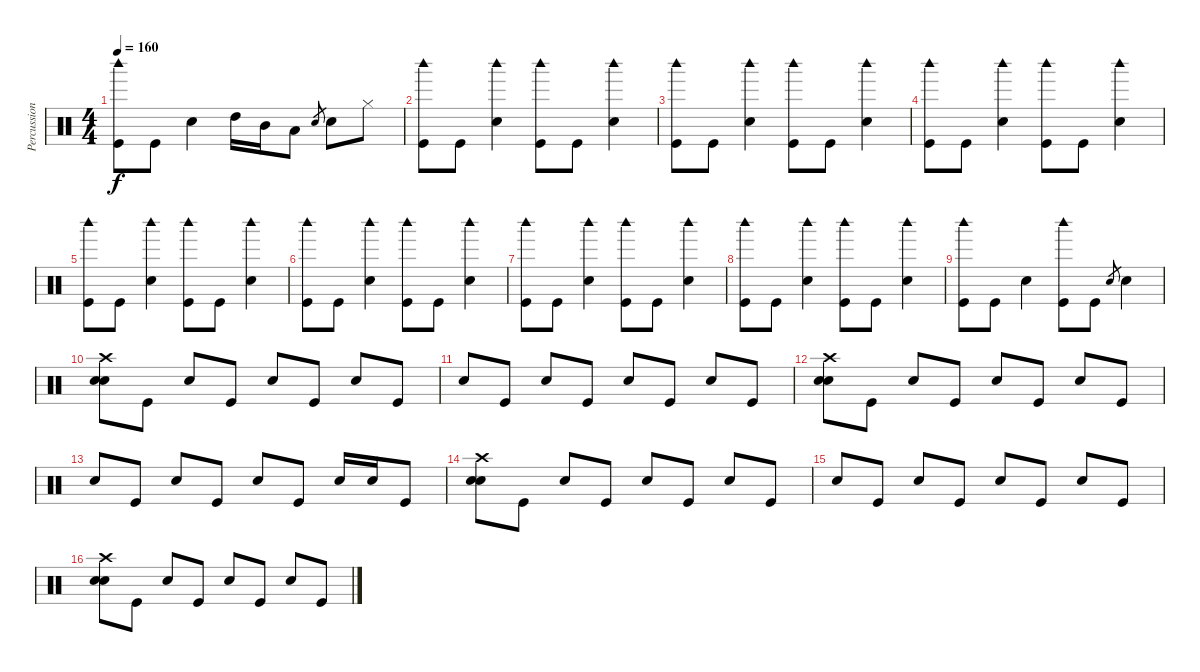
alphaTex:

\track ("Percussion" "Percussion") {instrument percussion}
\staff {score}
\articulation defaults
\ts (4 4)
\tempo 160
\clef neutral
\ks c
("Woodblock high (hit)" "Kick (hit)").8{dy f} "Kick (hit)".8 "Snare (hit) 2".4 "High Tom (hit)".16 "Mid Tom (hit)".16 "Low Tom (hit)".8 "Electric Snare (hit)".8{gr} "Snare (hit) 2".8 "Hi-Hat (closed)".8 |
("Woodblock high (hit)" "Kick (hit)").8 "Kick (hit)".8 ("Woodblock high (hit)" "Snare (hit) 2").4 ("Woodblock high (hit)" "Kick (hit)").8 "Kick (hit)".8 ("Woodblock high (hit)" "Snare (hit) 2").4 |
("Woodblock high (hit)" "Kick (hit)").8 "Kick (hit)".8 ("Woodblock high (hit)" "Snare (hit) 2").4 ("Woodblock high (hit)" "Kick (hit)").8 "Kick (hit)".8 ("Woodblock high (hit)" "Snare (hit) 2").4 |
("Woodblock high (hit)" "Kick (hit)").8 "Kick (hit)".8 ("Woodblock high (hit)" "Snare (hit) 2").4 ("Woodblock high (hit)" "Kick (hit)").8 "Kick (hit)".8 ("Woodblock high (hit)" "Snare (hit) 2").4 |
("Woodblock high (hit)" "Kick (hit)").8 "Kick (hit)".8 ("Woodblock high (hit)" "Snare (hit) 2").4 ("Woodblock high (hit)" "Kick (hit)").8 "Kick (hit)".8 ("Woodblock high (hit)" "Snare (hit) 2").4 |
("Woodblock high (hit)" "Kick (hit)").8 "Kick (hit)".8 ("Woodblock high (hit)" "Snare (hit) 2").4 ("Woodblock high (hit)" "Kick (hit)").8 "Kick (hit)".8 ("Woodblock high (hit)" "Snare (hit) 2").4 |
("Woodblock high (hit)" "Kick (hit)").8 "Kick (hit)".8 ("Woodblock high (hit)" "Snare (hit) 2").4 ("Woodblock high (hit)" "Kick (hit)").8 "Kick (hit)".8 ("Woodblock high (hit)" "Snare (hit) 2").4 |
("Woodblock high (hit)" "Kick (hit)").8 "Kick (hit)".8 ("Woodblock high (hit)" "Snare (hit) 2").4 ("Woodblock high (hit)" "Kick (hit)").8 "Kick (hit)".8 ("Woodblock high (hit)" "Snare (hit) 2").4 |
("Woodblock high (hit)" "Kick (hit)").8 "Kick (hit)".8 "Snare (hit) 2".4 ("Woodblock high (hit)" "Kick (hit)").8 "Kick (hit)".8 "Electric Snare (hit)".8{gr} "Snare (hit) 2".4 |
("Electric Snare (hit)" "Snare (hit) 2" "Crash high (hit)").8 "Kick (hit)".8 "Snare (hit) 2".8 "Kick (hit)".8 "Snare (hit) 2".8 "Kick (hit)".8 "Snare (hit) 2".8 "Kick (hit)".8 |
"Snare (hit) 2".8 "Kick (hit)".8 "Snare (hit) 2".8 "Kick (hit)".8 "Snare (hit) 2".8 "Kick (hit)".8 "Snare (hit) 2".8 "Kick (hit)".8 |
("Electric Snare (hit)" "Snare (hit) 2" "Crash high (hit)").8 "Kick (hit)".8 "Snare (hit) 2".8 "Kick (hit)".8 "Snare (hit) 2".8 "Kick (hit)".8 "Snare (hit) 2".8 "Kick (hit)".8 |
"Snare (hit) 2".8 "Kick (hit)".8 "Snare (hit) 2".8 "Kick (hit)".8 "Snare (hit) 2".8 "Kick (hit)".8 "Snare (hit) 2".16 "Snare (hit) 2".16 "Kick (hit)".8 |
("Electric Snare (hit)" "Snare (hit) 2" "Crash high (hit)").8 "Kick (hit)".8 "Snare (hit) 2".8 "Kick (hit)".8 "Snare (hit) 2".8 "Kick (hit)".8 "Snare (hit) 2".8 "Kick (hit)".8 |
"Snare (hit) 2".8 "Kick (hit)".8 "Snare (hit) 2".8 "Kick (hit)".8 "Snare (hit) 2".8 "Kick (hit)".8 "Snare (hit) 2".8 "Kick (hit)".8 |
("Electric Snare (hit)" "Snare (hit) 2" "Crash high (hit)").8 "Kick (hit)".8 "Snare (hit) 2".8 "Kick (hit)".8 "Snare (hit) 2".8 "Kick (hit)".8 "Snare (hit) 2".8 "Kick (hit)".8
